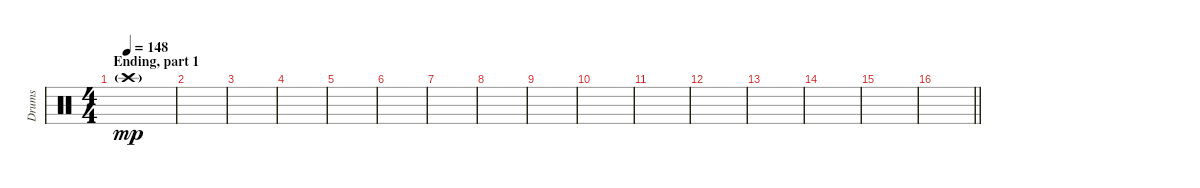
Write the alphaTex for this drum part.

\track ("Drums" "Drums") {instrument percussion}
\staff {score}
\articulation defaults
\ts (4 4)
\section ("" "Ending, part 1")
\tempo 148
\clef neutral
\ks c "Crash high (hit)"{g}.1{dy mp}
|
|
|
|
|
|
|
|
|
|
|
|
|
|
|
\barLineRight lightlight
